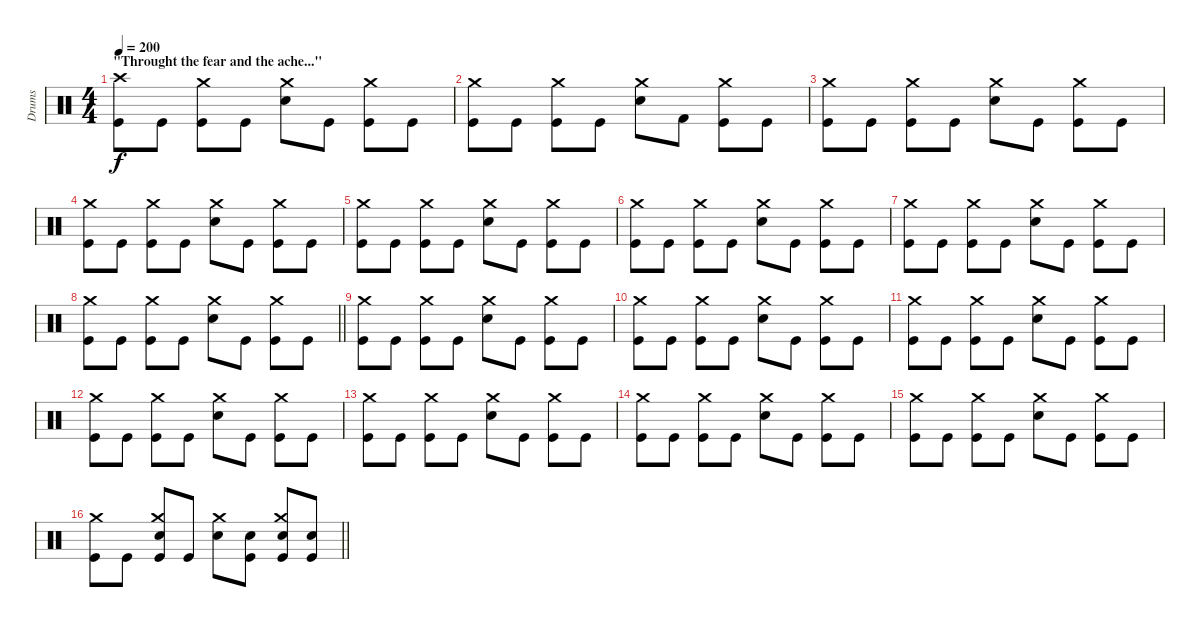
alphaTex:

\track ("Drums" "Drums") {instrument percussion}
\staff {score}
\articulation defaults
\ts (4 4)
\section ("" "\"Throught the fear and the ache...\"")
\tempo 200
\clef neutral
\ks c
("Crash high (hit)" "Kick (hit)").8{dy f} "Kick (hit)".8 ("Crash medium (hit)" "Kick (hit)").8 "Kick (hit)".8 ("Crash medium (hit)" "Snare (hit) 2").8 "Kick (hit)".8 ("Crash medium (hit)" "Kick (hit)").8 "Kick (hit)".8 |
("Crash medium (hit)" "Kick (hit)").8 "Kick (hit)".8 ("Crash medium (hit)" "Kick (hit)").8 "Kick (hit)".8 ("Crash medium (hit)" "Snare (hit) 2").8 "Kick (hit) 2".8 ("Crash medium (hit)" "Kick (hit)").8 "Kick (hit)".8 |
("Crash medium (hit)" "Kick (hit)").8 "Kick (hit)".8 ("Crash medium (hit)" "Kick (hit)").8 "Kick (hit)".8 ("Crash medium (hit)" "Snare (hit) 2").8 "Kick (hit)".8 ("Crash medium (hit)" "Kick (hit)").8 "Kick (hit)".8 |
("Crash medium (hit)" "Kick (hit)").8 "Kick (hit)".8 ("Crash medium (hit)" "Kick (hit)").8 "Kick (hit)".8 ("Crash medium (hit)" "Snare (hit) 2").8 "Kick (hit)".8 ("Crash medium (hit)" "Kick (hit)").8 "Kick (hit)".8 |
("Crash medium (hit)" "Kick (hit)").8 "Kick (hit)".8 ("Crash medium (hit)" "Kick (hit)").8 "Kick (hit)".8 ("Crash medium (hit)" "Snare (hit) 2").8 "Kick (hit)".8 ("Crash medium (hit)" "Kick (hit)").8 "Kick (hit)".8 |
("Crash medium (hit)" "Kick (hit)").8 "Kick (hit)".8 ("Crash medium (hit)" "Kick (hit)").8 "Kick (hit)".8 ("Crash medium (hit)" "Snare (hit) 2").8 "Kick (hit)".8 ("Crash medium (hit)" "Kick (hit)").8 "Kick (hit)".8 |
("Crash medium (hit)" "Kick (hit)").8 "Kick (hit)".8 ("Crash medium (hit)" "Kick (hit)").8 "Kick (hit)".8 ("Crash medium (hit)" "Snare (hit) 2").8 "Kick (hit)".8 ("Crash medium (hit)" "Kick (hit)").8 "Kick (hit)".8 |
\barLineRight lightlight
("Crash medium (hit)" "Kick (hit)").8 "Kick (hit)".8 ("Crash medium (hit)" "Kick (hit)").8 "Kick (hit)".8 ("Crash medium (hit)" "Snare (hit) 2").8 "Kick (hit)".8 ("Crash medium (hit)" "Kick (hit)").8 "Kick (hit)".8 |
("Crash medium (hit)" "Kick (hit)").8 "Kick (hit)".8 ("Crash medium (hit)" "Kick (hit)").8 "Kick (hit)".8 ("Crash medium (hit)" "Snare (hit) 2").8 "Kick (hit)".8 ("Crash medium (hit)" "Kick (hit)").8 "Kick (hit)".8 |
("Crash medium (hit)" "Kick (hit)").8 "Kick (hit)".8 ("Crash medium (hit)" "Kick (hit)").8 "Kick (hit)".8 ("Crash medium (hit)" "Snare (hit) 2").8 "Kick (hit)".8 ("Crash medium (hit)" "Kick (hit)").8 "Kick (hit)".8 |
("Crash medium (hit)" "Kick (hit)").8 "Kick (hit)".8 ("Crash medium (hit)" "Kick (hit)").8 "Kick (hit)".8 ("Crash medium (hit)" "Snare (hit) 2").8 "Kick (hit)".8 ("Crash medium (hit)" "Kick (hit)").8 "Kick (hit)".8 |
("Crash medium (hit)" "Kick (hit)").8 "Kick (hit)".8 ("Crash medium (hit)" "Kick (hit)").8 "Kick (hit)".8 ("Crash medium (hit)" "Snare (hit) 2").8 "Kick (hit)".8 ("Crash medium (hit)" "Kick (hit)").8 "Kick (hit)".8 |
("Crash medium (hit)" "Kick (hit)").8 "Kick (hit)".8 ("Crash medium (hit)" "Kick (hit)").8 "Kick (hit)".8 ("Crash medium (hit)" "Snare (hit) 2").8 "Kick (hit)".8 ("Crash medium (hit)" "Kick (hit)").8 "Kick (hit)".8 |
("Crash medium (hit)" "Kick (hit)").8 "Kick (hit)".8 ("Crash medium (hit)" "Kick (hit)").8 "Kick (hit)".8 ("Crash medium (hit)" "Snare (hit) 2").8 "Kick (hit)".8 ("Crash medium (hit)" "Kick (hit)").8 "Kick (hit)".8 |
("Crash medium (hit)" "Kick (hit)").8 "Kick (hit)".8 ("Crash medium (hit)" "Kick (hit)").8 "Kick (hit)".8 ("Crash medium (hit)" "Snare (hit) 2").8 "Kick (hit)".8 ("Crash medium (hit)" "Kick (hit)").8 "Kick (hit)".8 |
\barLineRight lightlight
("Crash medium (hit)" "Kick (hit)").8 "Kick (hit)".8 ("Crash medium (hit)" "Snare (hit) 2" "Kick (hit)").8 "Kick (hit)".8 ("Crash medium (hit)" "Snare (hit) 2").8 ("Snare (hit) 2" "Kick (hit)").8 ("Crash medium (hit)" "Snare (hit) 2" "Kick (hit)").8 ("Snare (hit) 2" "Kick (hit)").8
